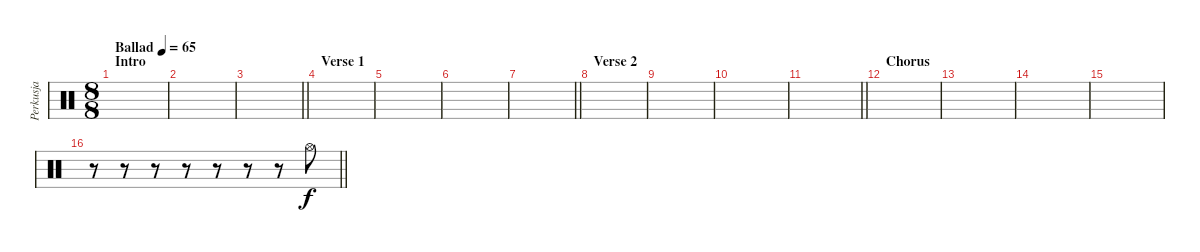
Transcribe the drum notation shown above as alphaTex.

\track ("Perkusja" "Perkusja") {solo instrument percussion}
\staff {score}
\articulation defaults
\ts (8 8)
\section ("" "Intro")
\tempo (65 "Ballad")
\clef neutral
\ks c
|
|
\barLineRight lightlight
|
\section ("" "Verse 1")
|
|
|
\barLineRight lightlight
|
\section ("" "Verse 2")
|
|
|
\barLineRight lightlight
|
\section ("" "Chorus")
|
|
|
|
\barLineRight lightlight
r.8 r.8 r.8 r.8 r.8 r.8 r.8 "Hi-Hat (open)".8
